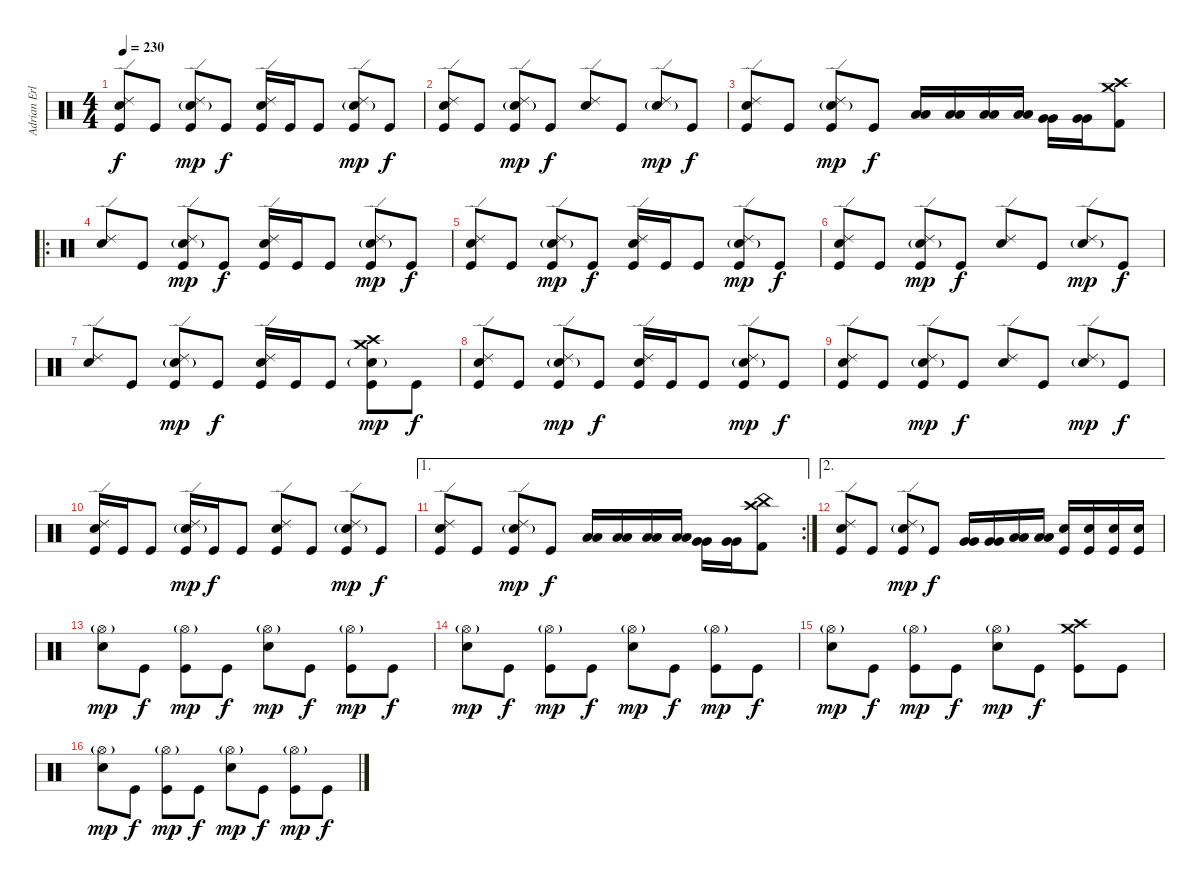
\track ("Adrian Erlandsson - Drums" "Adrian Erl") {instrument percussion}
\staff {score}
\articulation defaults
\ts (4 4)
\tempo 230
\clef neutral
\ks c
("Ride (edge) 2" "Electric Snare (hit)" "Kick (hit)").8{dy f} "Kick (hit)".8 ("Ride (edge) 2" "Electric Snare (hit)"{g} "Kick (hit)").8{dy mp} "Kick (hit)".8{dy f} ("Ride (edge) 2" "Electric Snare (hit)" "Kick (hit)").16 "Kick (hit)".16 "Kick (hit)".8 ("Ride (edge) 2" "Electric Snare (hit)"{g} "Kick (hit)").8{dy mp} "Kick (hit)".8{dy f} |
("Ride (edge) 2" "Electric Snare (hit)" "Kick (hit)").8 "Kick (hit)".8 ("Ride (edge) 2" "Electric Snare (hit)"{g} "Kick (hit)").8{dy mp} "Kick (hit)".8{dy f} ("Ride (edge) 2" "Electric Snare (hit)").8 "Kick (hit)".8 ("Ride (edge) 2" "Electric Snare (hit)"{g}).8{dy mp} "Kick (hit)".8{dy f} |
("Ride (edge) 2" "Electric Snare (hit)" "Kick (hit)").8 "Kick (hit)".8 ("Ride (edge) 2" "Electric Snare (hit)"{g} "Kick (hit)").8{dy mp} "Kick (hit)".8{dy f} ("Low Tom (hit)" "Low Tom (hit)").16 ("Low Tom (hit)" "Low Tom (hit)").16 ("Low Tom (hit)" "Low Tom (hit)").16 ("Low Tom (hit)" "Low Tom (hit)").16 ("Very Low Tom (hit)" "Very Low Tom (hit)").16 ("Very Low Tom (hit)" "Very Low Tom (hit)").16 ("Crash medium (hit)" "Crash high (hit)" "Kick (hit) 2").8 |
\ro
("Ride (edge) 2" "Electric Snare (hit)").8 "Kick (hit)".8 ("Ride (edge) 2" "Electric Snare (hit)"{g} "Kick (hit)").8{dy mp} "Kick (hit)".8{dy f} ("Ride (edge) 2" "Electric Snare (hit)" "Kick (hit)").16 "Kick (hit)".16 "Kick (hit)".8 ("Ride (edge) 2" "Electric Snare (hit)"{g} "Kick (hit)").8{dy mp} "Kick (hit)".8{dy f} |
("Ride (edge) 2" "Electric Snare (hit)" "Kick (hit)").8 "Kick (hit)".8 ("Ride (edge) 2" "Electric Snare (hit)"{g} "Kick (hit)").8{dy mp} "Kick (hit)".8{dy f} ("Ride (edge) 2" "Electric Snare (hit)" "Kick (hit)").16 "Kick (hit)".16 "Kick (hit)".8 ("Ride (edge) 2" "Electric Snare (hit)"{g} "Kick (hit)").8{dy mp} "Kick (hit)".8{dy f} |
("Ride (edge) 2" "Electric Snare (hit)" "Kick (hit)").8 "Kick (hit)".8 ("Ride (edge) 2" "Electric Snare (hit)"{g} "Kick (hit)").8{dy mp} "Kick (hit)".8{dy f} ("Ride (edge) 2" "Electric Snare (hit)").8 "Kick (hit)".8 ("Ride (edge) 2" "Electric Snare (hit)"{g}).8{dy mp} "Kick (hit)".8{dy f} |
("Ride (edge) 2" "Electric Snare (hit)").8 "Kick (hit)".8 ("Ride (edge) 2" "Electric Snare (hit)"{g} "Kick (hit)").8{dy mp} "Kick (hit)".8{dy f} ("Ride (edge) 2" "Electric Snare (hit)" "Kick (hit)").16 "Kick (hit)".16 "Kick (hit)".8 ("Crash medium (hit)" "Crash high (hit)" "Electric Snare (hit)"{g} "Kick (hit)").8{dy mp} "Kick (hit)".8{dy f} |
("Ride (edge) 2" "Electric Snare (hit)" "Kick (hit)").8 "Kick (hit)".8 ("Ride (edge) 2" "Electric Snare (hit)"{g} "Kick (hit)").8{dy mp} "Kick (hit)".8{dy f} ("Ride (edge) 2" "Electric Snare (hit)" "Kick (hit)").16 "Kick (hit)".16 "Kick (hit)".8 ("Ride (edge) 2" "Electric Snare (hit)"{g} "Kick (hit)").8{dy mp} "Kick (hit)".8{dy f} |
("Ride (edge) 2" "Electric Snare (hit)" "Kick (hit)").8 "Kick (hit)".8 ("Ride (edge) 2" "Electric Snare (hit)"{g} "Kick (hit)").8{dy mp} "Kick (hit)".8{dy f} ("Ride (edge) 2" "Electric Snare (hit)").8 "Kick (hit)".8 ("Ride (edge) 2" "Electric Snare (hit)"{g}).8{dy mp} "Kick (hit)".8{dy f} |
("Ride (edge) 2" "Electric Snare (hit)" "Kick (hit)").16 "Kick (hit)".16 "Kick (hit)".8 ("Ride (edge) 2" "Electric Snare (hit)"{g} "Kick (hit)").16{dy mp} "Kick (hit)".16{dy f} "Kick (hit)".8 ("Ride (edge) 2" "Electric Snare (hit)" "Kick (hit)").8 "Kick (hit)".8 ("Ride (edge) 2" "Electric Snare (hit)"{g} "Kick (hit)").8{dy mp} "Kick (hit)".8{dy f} |
\ae 1
\rc 2
("Ride (edge) 2" "Electric Snare (hit)" "Kick (hit)").8 "Kick (hit)".8 ("Ride (edge) 2" "Electric Snare (hit)"{g} "Kick (hit)").8{dy mp} "Kick (hit)".8{dy f} ("Low Tom (hit)" "Low Tom (hit)").16 ("Low Tom (hit)" "Low Tom (hit)").16 ("Low Tom (hit)" "Low Tom (hit)").16 ("Low Tom (hit)" "Low Tom (hit)").16 ("Very Low Tom (hit)" "Very Low Tom (hit)").16 ("Very Low Tom (hit)" "Very Low Tom (hit)").16 ("China (hit)" "Crash high (hit)" "Kick (hit) 2").8 |
\ae 2
("Ride (edge) 2" "Electric Snare (hit)" "Kick (hit)").8 "Kick (hit)".8 ("Ride (edge) 2" "Electric Snare (hit)"{g} "Kick (hit)").8{dy mp} "Kick (hit)".8{dy f} ("Very Low Tom (hit)" "Very Low Tom (hit)").16 ("Very Low Tom (hit)" "Very Low Tom (hit)").16 ("Low Tom (hit)" "Low Tom (hit)").16 ("Low Tom (hit)" "Low Tom (hit)").16 ("Electric Snare (hit)" "Kick (hit)").16 ("Electric Snare (hit)" "Kick (hit)").16 ("Electric Snare (hit)" "Kick (hit)").16 ("Electric Snare (hit)" "Kick (hit)").16 |
("Hi-Hat (open)"{g} "Electric Snare (hit)").8{dy mp} "Kick (hit)".8{dy f} ("Hi-Hat (open)"{g} "Kick (hit)").8{dy mp} "Kick (hit)".8{dy f} ("Hi-Hat (open)"{g} "Electric Snare (hit)").8{dy mp} "Kick (hit)".8{dy f} ("Hi-Hat (open)"{g} "Kick (hit)").8{dy mp} "Kick (hit)".8{dy f} |
("Hi-Hat (open)"{g} "Electric Snare (hit)").8{dy mp} "Kick (hit)".8{dy f} ("Hi-Hat (open)"{g} "Kick (hit)").8{dy mp} "Kick (hit)".8{dy f} ("Hi-Hat (open)"{g} "Electric Snare (hit)").8{dy mp} "Kick (hit)".8{dy f} ("Hi-Hat (open)"{g} "Kick (hit)").8{dy mp} "Kick (hit)".8{dy f} |
("Hi-Hat (open)"{g} "Electric Snare (hit)").8{dy mp} "Kick (hit)".8{dy f} ("Hi-Hat (open)"{g} "Kick (hit)").8{dy mp} "Kick (hit)".8{dy f} ("Hi-Hat (open)"{g} "Electric Snare (hit)").8{dy mp} "Kick (hit)".8{dy f} ("Crash medium (hit)" "Crash high (hit)" "Kick (hit)").8 "Kick (hit)".8 |
("Hi-Hat (open)"{g} "Electric Snare (hit)").8{dy mp} "Kick (hit)".8{dy f} ("Hi-Hat (open)"{g} "Kick (hit)").8{dy mp} "Kick (hit)".8{dy f} ("Hi-Hat (open)"{g} "Electric Snare (hit)").8{dy mp} "Kick (hit)".8{dy f} ("Hi-Hat (open)"{g} "Kick (hit)").8{dy mp} "Kick (hit)".8{dy f}
